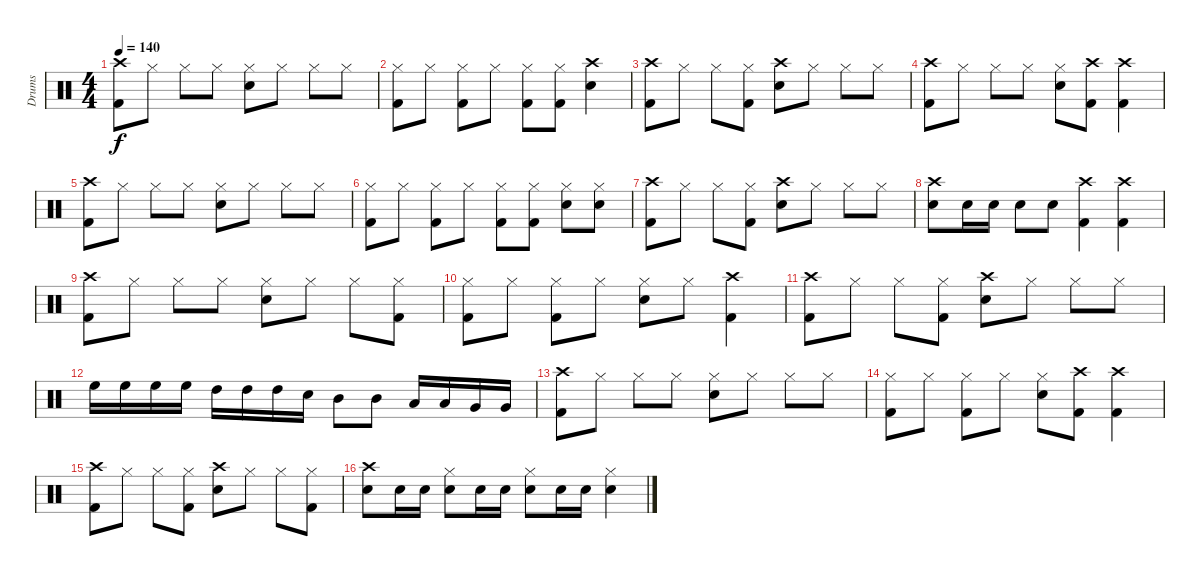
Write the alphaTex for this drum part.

\track ("Drums" "Drums") {instrument percussion}
\staff {score}
\articulation defaults
\ts (4 4)
\tempo 140
\clef neutral
\ks c
("Crash high (hit)" "Kick (hit) 2").8{dy f} "Hi-Hat (closed)".8 "Hi-Hat (closed)".8 "Hi-Hat (closed)".8 ("Hi-Hat (closed)" "Snare (hit) 2").8 "Hi-Hat (closed)".8 "Hi-Hat (closed)".8 "Hi-Hat (closed)".8 |
("Hi-Hat (closed)" "Kick (hit) 2").8 "Hi-Hat (closed)".8 ("Hi-Hat (closed)" "Kick (hit) 2").8 "Hi-Hat (closed)".8 ("Hi-Hat (closed)" "Kick (hit) 2").8 ("Hi-Hat (closed)" "Kick (hit) 2").8 ("Crash high (hit)" "Snare (hit) 2").4 |
("Crash high (hit)" "Kick (hit) 2").8 "Hi-Hat (closed)".8 "Hi-Hat (closed)".8 ("Hi-Hat (closed)" "Kick (hit) 2").8 ("Crash high (hit)" "Snare (hit) 2").8 "Hi-Hat (closed)".8 "Hi-Hat (closed)".8 "Hi-Hat (closed)".8 |
("Crash high (hit)" "Kick (hit) 2").8 "Hi-Hat (closed)".8 "Hi-Hat (closed)".8 "Hi-Hat (closed)".8 ("Hi-Hat (closed)" "Snare (hit) 2").8 ("Crash high (hit)" "Kick (hit) 2").8 ("Crash high (hit)" "Kick (hit) 2").4 |
("Crash high (hit)" "Kick (hit) 2").8 "Hi-Hat (closed)".8 "Hi-Hat (closed)".8 "Hi-Hat (closed)".8 ("Hi-Hat (closed)" "Snare (hit) 2").8 "Hi-Hat (closed)".8 "Hi-Hat (closed)".8 "Hi-Hat (closed)".8 |
("Hi-Hat (closed)" "Kick (hit) 2").8 "Hi-Hat (closed)".8 ("Hi-Hat (closed)" "Kick (hit) 2").8 "Hi-Hat (closed)".8 ("Hi-Hat (closed)" "Kick (hit) 2").8 ("Hi-Hat (closed)" "Kick (hit) 2").8 ("Hi-Hat (closed)" "Snare (hit) 2").8 ("Hi-Hat (closed)" "Snare (hit) 2").8 |
("Crash high (hit)" "Kick (hit) 2").8 "Hi-Hat (closed)".8 "Hi-Hat (closed)".8 ("Hi-Hat (closed)" "Kick (hit) 2").8 ("Crash high (hit)" "Snare (hit) 2").8 "Hi-Hat (closed)".8 "Hi-Hat (closed)".8 "Hi-Hat (closed)".8 |
("Crash high (hit)" "Snare (hit) 2").8 "Snare (hit) 2".16 "Snare (hit) 2".16 "Snare (hit) 2".8 "Snare (hit) 2".8 ("Crash high (hit)" "Kick (hit) 2").4 ("Crash high (hit)" "Kick (hit) 2").4 |
("Crash high (hit)" "Kick (hit) 2").8 "Hi-Hat (closed)".8 "Hi-Hat (closed)".8 "Hi-Hat (closed)".8 ("Hi-Hat (closed)" "Snare (hit) 2").8 "Hi-Hat (closed)".8 "Hi-Hat (closed)".8 ("Hi-Hat (closed)" "Kick (hit) 2").8 |
("Hi-Hat (closed)" "Kick (hit) 2").8 "Hi-Hat (closed)".8 ("Hi-Hat (closed)" "Kick (hit) 2").8 "Hi-Hat (closed)".8 ("Hi-Hat (closed)" "Snare (hit) 2").8 "Hi-Hat (closed)".8 ("Crash high (hit)" "Kick (hit) 2").4 |
("Crash high (hit)" "Kick (hit) 2").8 "Hi-Hat (closed)".8 "Hi-Hat (closed)".8 ("Hi-Hat (closed)" "Kick (hit) 2").8 ("Crash high (hit)" "Snare (hit) 2").8 "Hi-Hat (closed)".8 "Hi-Hat (closed)".8 "Hi-Hat (closed)".8 |
"High Floor Tom (hit)".16 "High Floor Tom (hit)".16 "High Floor Tom (hit)".16 "High Floor Tom (hit)".16 "High Tom (hit)".16 "High Tom (hit)".16 "High Tom (hit)".16 "Snare (hit) 2".16 "Mid Tom (hit)".8 "Mid Tom (hit)".8 "Low Tom (hit)".16 "Low Tom (hit)".16 "Very Low Tom (hit)".16 "Very Low Tom (hit)".16 |
("Crash high (hit)" "Kick (hit) 2").8 "Hi-Hat (closed)".8 "Hi-Hat (closed)".8 "Hi-Hat (closed)".8 ("Hi-Hat (closed)" "Snare (hit) 2").8 "Hi-Hat (closed)".8 "Hi-Hat (closed)".8 "Hi-Hat (closed)".8 |
("Hi-Hat (closed)" "Kick (hit) 2").8 "Hi-Hat (closed)".8 ("Hi-Hat (closed)" "Kick (hit) 2").8 "Hi-Hat (closed)".8 ("Hi-Hat (closed)" "Snare (hit) 2").8 ("Crash high (hit)" "Kick (hit) 2").8 ("Crash high (hit)" "Kick (hit) 2").4 |
("Crash high (hit)" "Kick (hit) 2").8 "Hi-Hat (closed)".8 "Hi-Hat (closed)".8 ("Hi-Hat (closed)" "Kick (hit) 2").8 ("Crash high (hit)" "Snare (hit) 2").8 "Hi-Hat (closed)".8 "Hi-Hat (closed)".8 ("Hi-Hat (closed)" "Kick (hit) 2").8 |
("Crash high (hit)" "Snare (hit) 2").8 "Snare (hit) 2".16 "Snare (hit) 2".16 ("Hi-Hat (closed)" "Snare (hit) 2").8 "Snare (hit) 2".16 "Snare (hit) 2".16 ("Hi-Hat (closed)" "Snare (hit) 2").8 "Snare (hit) 2".16 "Snare (hit) 2".16 ("Hi-Hat (closed)" "Snare (hit) 2").4
